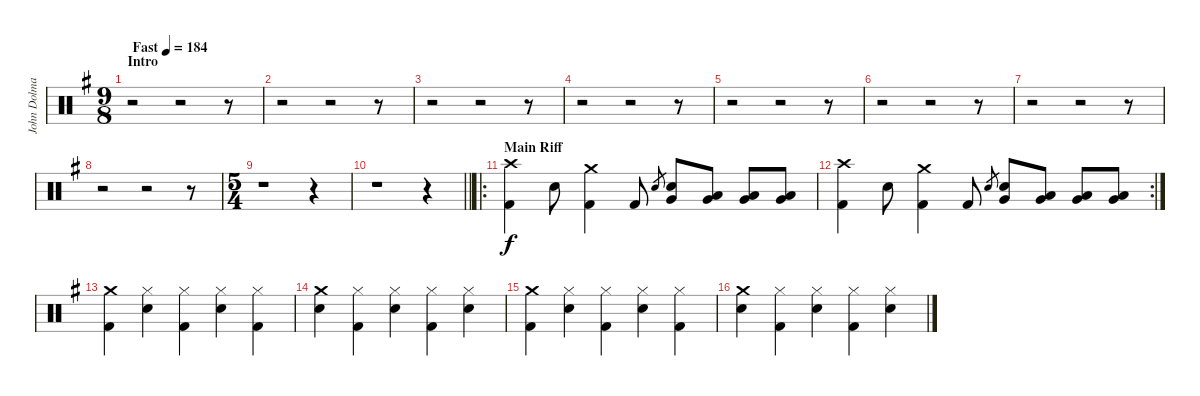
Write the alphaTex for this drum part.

\track ("John Dolmayan [Drums]" "John Dolma") {instrument percussion}
\staff {score}
\articulation defaults
\ts (9 8)
\section ("" "Intro")
\tempo (184 "Fast")
\clef neutral
\ks eminor
r.2{dy f} r.2 r.8 |
r.2 r.2 r.8 |
r.2 r.2 r.8 |
r.2 r.2 r.8 |
r.2 r.2 r.8 |
r.2 r.2 r.8 |
r.2 r.2 r.8 |
r.2 r.2 r.8 |
\ts (5 4)
r.1 r.4 |
\barLineRight lightlight
r.1 r.4 |
\ro
\section ("" "Main Riff")
("Crash high (hit)" "Kick (hit) 2").4 "Electric Snare (hit)".8 ("Crash medium (hit)" "Kick (hit) 2").4 "Kick (hit) 2".8 "Electric Snare (hit)".8{gr} ("Very Low Tom (hit)" "Electric Snare (hit)").8 ("Low Tom (hit)" "Very Low Tom (hit)").8 ("Very Low Tom (hit)" "Low Floor Tom (hit)").8 ("Very Low Tom (hit)" "Low Floor Tom (hit)").8 |
\rc 2
("Crash high (hit)" "Kick (hit) 2").4 "Electric Snare (hit)".8 ("Crash medium (hit)" "Kick (hit) 2").4 "Kick (hit) 2".8 "Electric Snare (hit)".8{gr} ("Very Low Tom (hit)" "Electric Snare (hit)").8 ("Low Tom (hit)" "Very Low Tom (hit)").8 ("Very Low Tom (hit)" "Low Floor Tom (hit)").8 ("Very Low Tom (hit)" "Low Floor Tom (hit)").8 |
("Crash medium (hit)" "Kick (hit) 2").4 ("Hi-Hat (closed)" "Electric Snare (hit)").4 ("Hi-Hat (closed)" "Kick (hit) 2").4 ("Hi-Hat (closed)" "Electric Snare (hit)").4 ("Hi-Hat (closed)" "Kick (hit) 2").4 |
("Crash medium (hit)" "Electric Snare (hit)").4 ("Hi-Hat (closed)" "Kick (hit) 2").4 ("Hi-Hat (closed)" "Electric Snare (hit)").4 ("Hi-Hat (closed)" "Kick (hit) 2").4 ("Hi-Hat (closed)" "Electric Snare (hit)").4 |
("Crash medium (hit)" "Kick (hit) 2").4 ("Hi-Hat (closed)" "Electric Snare (hit)").4 ("Hi-Hat (closed)" "Kick (hit) 2").4 ("Hi-Hat (closed)" "Electric Snare (hit)").4 ("Hi-Hat (closed)" "Kick (hit) 2").4 |
("Crash medium (hit)" "Electric Snare (hit)").4 ("Hi-Hat (closed)" "Kick (hit) 2").4 ("Hi-Hat (closed)" "Electric Snare (hit)").4 ("Hi-Hat (closed)" "Kick (hit) 2").4 ("Hi-Hat (closed)" "Electric Snare (hit)").4
